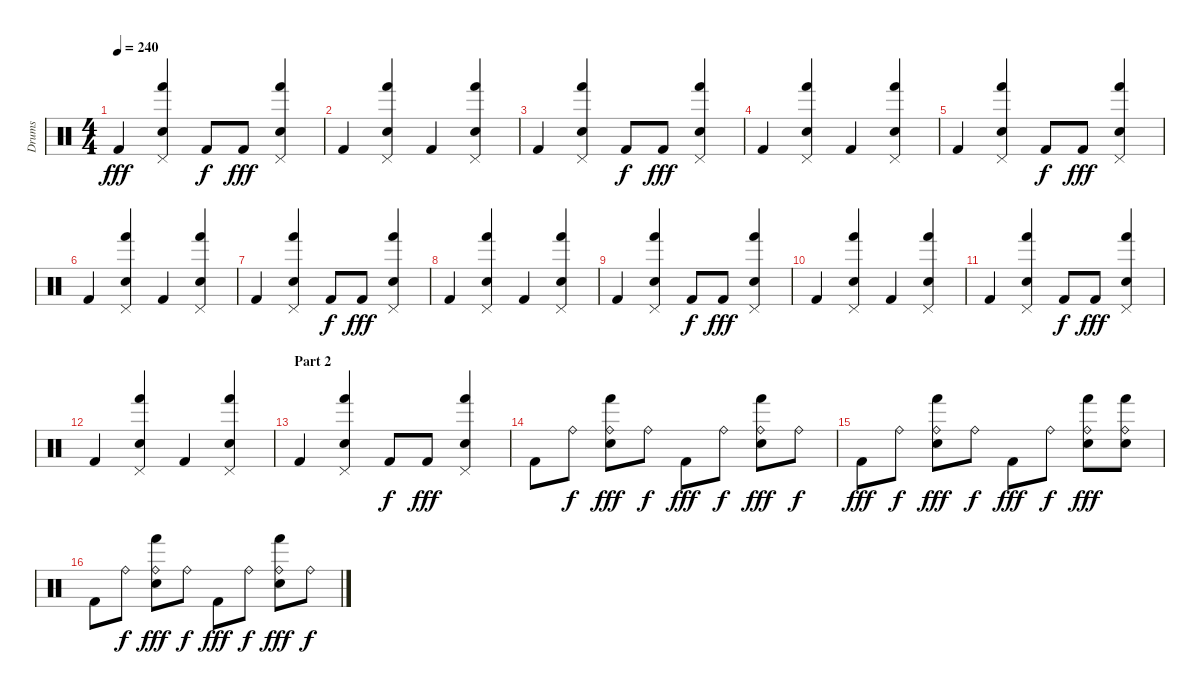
\track ("Drums" "Drums") {instrument percussion}
\staff {score}
\articulation defaults
\ts (4 4)
\tempo 240
\clef neutral
\ks c "Kick (hit) 2".4{dy fff}
("Pedal Hi-Hat (hit)" "Hand (hit)" "Electric Snare (hit)").4 "Kick (hit) 2".8{dy f} "Kick (hit) 2".8{dy fff} ("Pedal Hi-Hat (hit)" "Hand (hit)" "Electric Snare (hit)").4 |
"Kick (hit) 2".4 ("Pedal Hi-Hat (hit)" "Hand (hit)" "Electric Snare (hit)").4 "Kick (hit) 2".4 ("Pedal Hi-Hat (hit)" "Hand (hit)" "Electric Snare (hit)").4 |
"Kick (hit) 2".4 ("Pedal Hi-Hat (hit)" "Hand (hit)" "Electric Snare (hit)").4 "Kick (hit) 2".8{dy f} "Kick (hit) 2".8{dy fff} ("Pedal Hi-Hat (hit)" "Hand (hit)" "Electric Snare (hit)").4 |
"Kick (hit) 2".4 ("Pedal Hi-Hat (hit)" "Hand (hit)" "Electric Snare (hit)").4 "Kick (hit) 2".4 ("Pedal Hi-Hat (hit)" "Hand (hit)" "Electric Snare (hit)").4 |
"Kick (hit) 2".4 ("Pedal Hi-Hat (hit)" "Hand (hit)" "Electric Snare (hit)").4 "Kick (hit) 2".8{dy f} "Kick (hit) 2".8{dy fff} ("Pedal Hi-Hat (hit)" "Hand (hit)" "Electric Snare (hit)").4 |
"Kick (hit) 2".4 ("Pedal Hi-Hat (hit)" "Hand (hit)" "Electric Snare (hit)").4 "Kick (hit) 2".4 ("Pedal Hi-Hat (hit)" "Hand (hit)" "Electric Snare (hit)").4 |
"Kick (hit) 2".4 ("Pedal Hi-Hat (hit)" "Hand (hit)" "Electric Snare (hit)").4 "Kick (hit) 2".8{dy f} "Kick (hit) 2".8{dy fff} ("Pedal Hi-Hat (hit)" "Hand (hit)" "Electric Snare (hit)").4 |
"Kick (hit) 2".4 ("Pedal Hi-Hat (hit)" "Hand (hit)" "Electric Snare (hit)").4 "Kick (hit) 2".4 ("Pedal Hi-Hat (hit)" "Hand (hit)" "Electric Snare (hit)").4 |
"Kick (hit) 2".4 ("Pedal Hi-Hat (hit)" "Hand (hit)" "Electric Snare (hit)").4 "Kick (hit) 2".8{dy f} "Kick (hit) 2".8{dy fff} ("Pedal Hi-Hat (hit)" "Hand (hit)" "Electric Snare (hit)").4 |
"Kick (hit) 2".4 ("Pedal Hi-Hat (hit)" "Hand (hit)" "Electric Snare (hit)").4 "Kick (hit) 2".4 ("Pedal Hi-Hat (hit)" "Hand (hit)" "Electric Snare (hit)").4 |
"Kick (hit) 2".4 ("Pedal Hi-Hat (hit)" "Hand (hit)" "Electric Snare (hit)").4 "Kick (hit) 2".8{dy f} "Kick (hit) 2".8{dy fff} ("Pedal Hi-Hat (hit)" "Hand (hit)" "Electric Snare (hit)").4 |
"Kick (hit) 2".4 ("Pedal Hi-Hat (hit)" "Hand (hit)" "Electric Snare (hit)").4 "Kick (hit) 2".4 ("Pedal Hi-Hat (hit)" "Hand (hit)" "Electric Snare (hit)").4 |
\section ("" "Part 2")
"Kick (hit) 2".4 ("Pedal Hi-Hat (hit)" "Hand (hit)" "Electric Snare (hit)").4 "Kick (hit) 2".8{dy f} "Kick (hit) 2".8{dy fff} ("Pedal Hi-Hat (hit)" "Hand (hit)" "Electric Snare (hit)").4 |
"Kick (hit) 2".8 "Ride (bell)".8{dy f} ("Ride (bell)" "Hand (hit)" "Electric Snare (hit)").8{dy fff} "Ride (bell)".8{dy f} "Kick (hit) 2".8{dy fff} "Ride (bell)".8{dy f} ("Ride (bell)" "Hand (hit)" "Electric Snare (hit)").8{dy fff} "Ride (bell)".8{dy f} |
"Kick (hit) 2".8{dy fff} "Ride (bell)".8{dy f} ("Ride (bell)" "Hand (hit)" "Electric Snare (hit)").8{dy fff} "Ride (bell)".8{dy f} "Kick (hit) 2".8{dy fff} "Ride (bell)".8{dy f} ("Ride (bell)" "Hand (hit)" "Electric Snare (hit)").8{dy fff} ("Ride (bell)" "Hand (hit)" "Electric Snare (hit)").8 |
"Kick (hit) 2".8 "Ride (bell)".8{dy f} ("Ride (bell)" "Hand (hit)" "Electric Snare (hit)").8{dy fff} "Ride (bell)".8{dy f} "Kick (hit) 2".8{dy fff} "Ride (bell)".8{dy f} ("Ride (bell)" "Hand (hit)" "Electric Snare (hit)").8{dy fff} "Ride (bell)".8{dy f}
